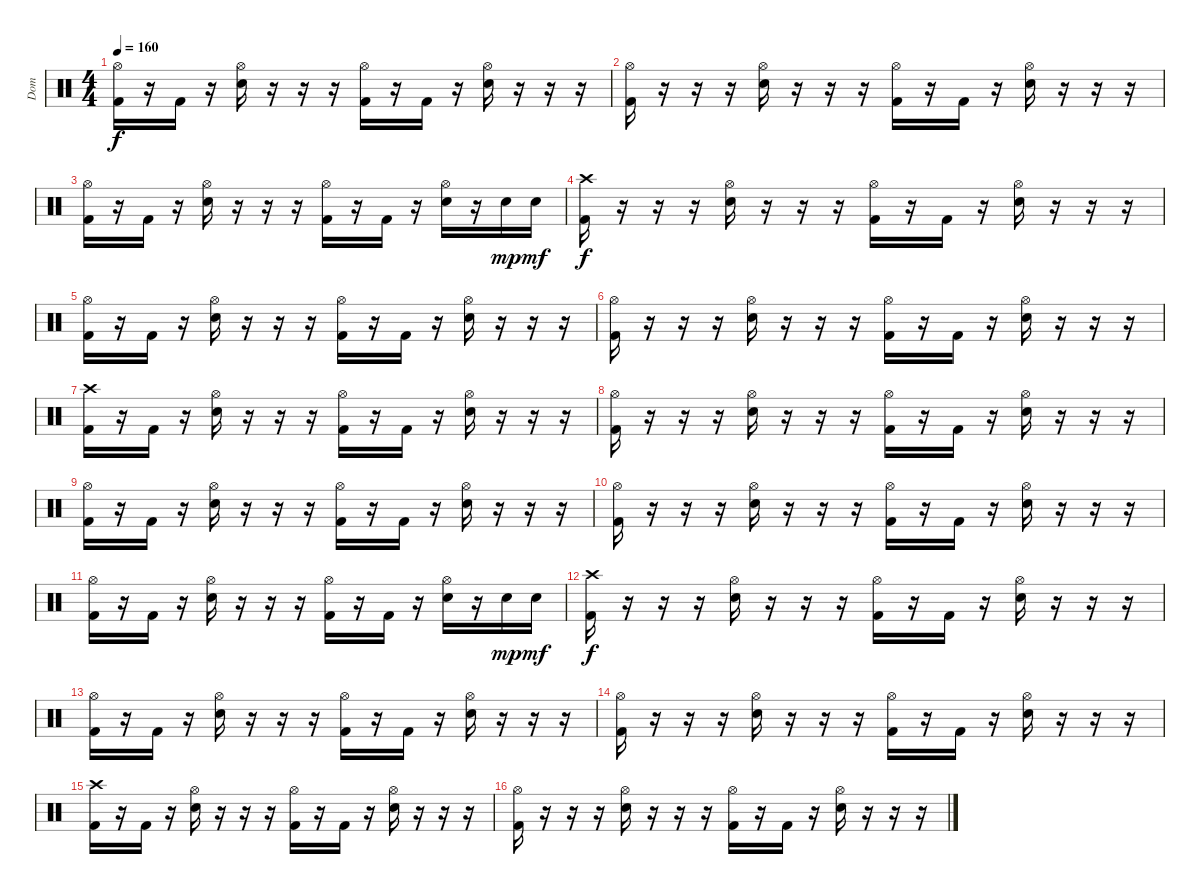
\track ("Dom" "Dom") {instrument percussion}
\staff {score}
\articulation defaults
\ts (4 4)
\tempo 160
\clef neutral
\ks c
("Hi-Hat (open)" "Kick (hit) 2").16{dy f} r.16 "Kick (hit) 2".16 r.16 ("Hi-Hat (open)" "Electric Snare (hit)").16 r.16 r.16 r.16 ("Hi-Hat (open)" "Kick (hit) 2").16 r.16 "Kick (hit) 2".16 r.16 ("Hi-Hat (open)" "Electric Snare (hit)").16 r.16 r.16 r.16 |
("Hi-Hat (open)" "Kick (hit) 2").16 r.16 r.16 r.16 ("Hi-Hat (open)" "Electric Snare (hit)").16 r.16 r.16 r.16 ("Hi-Hat (open)" "Kick (hit) 2").16 r.16 "Kick (hit) 2".16 r.16 ("Hi-Hat (open)" "Electric Snare (hit)").16 r.16 r.16 r.16 |
("Hi-Hat (open)" "Kick (hit) 2").16 r.16 "Kick (hit) 2".16 r.16 ("Hi-Hat (open)" "Electric Snare (hit)").16 r.16 r.16 r.16 ("Hi-Hat (open)" "Kick (hit) 2").16 r.16 "Kick (hit) 2".16 r.16 ("Hi-Hat (open)" "Electric Snare (hit)").16 r.16 "Electric Snare (hit)".16{dy mp} "Electric Snare (hit)".16{dy mf} |
("Crash high (hit)" "Kick (hit) 2").16{dy f} r.16 r.16 r.16 ("Hi-Hat (open)" "Electric Snare (hit)").16 r.16 r.16 r.16 ("Hi-Hat (open)" "Kick (hit) 2").16 r.16 "Kick (hit) 2".16 r.16 ("Hi-Hat (open)" "Electric Snare (hit)").16 r.16 r.16 r.16 |
("Hi-Hat (open)" "Kick (hit) 2").16 r.16 "Kick (hit) 2".16 r.16 ("Hi-Hat (open)" "Electric Snare (hit)").16 r.16 r.16 r.16 ("Hi-Hat (open)" "Kick (hit) 2").16 r.16 "Kick (hit) 2".16 r.16 ("Hi-Hat (open)" "Electric Snare (hit)").16 r.16 r.16 r.16 |
("Hi-Hat (open)" "Kick (hit) 2").16 r.16 r.16 r.16 ("Hi-Hat (open)" "Electric Snare (hit)").16 r.16 r.16 r.16 ("Hi-Hat (open)" "Kick (hit) 2").16 r.16 "Kick (hit) 2".16 r.16 ("Hi-Hat (open)" "Electric Snare (hit)").16 r.16 r.16 r.16 |
("Crash high (hit)" "Kick (hit) 2").16 r.16 "Kick (hit) 2".16 r.16 ("Hi-Hat (open)" "Electric Snare (hit)").16 r.16 r.16 r.16 ("Hi-Hat (open)" "Kick (hit) 2").16 r.16 "Kick (hit) 2".16 r.16 ("Hi-Hat (open)" "Electric Snare (hit)").16 r.16 r.16 r.16 |
("Hi-Hat (open)" "Kick (hit) 2").16 r.16 r.16 r.16 ("Hi-Hat (open)" "Electric Snare (hit)").16 r.16 r.16 r.16 ("Hi-Hat (open)" "Kick (hit) 2").16 r.16 "Kick (hit) 2".16 r.16 ("Hi-Hat (open)" "Electric Snare (hit)").16 r.16 r.16 r.16 |
("Hi-Hat (open)" "Kick (hit) 2").16 r.16 "Kick (hit) 2".16 r.16 ("Hi-Hat (open)" "Electric Snare (hit)").16 r.16 r.16 r.16 ("Hi-Hat (open)" "Kick (hit) 2").16 r.16 "Kick (hit) 2".16 r.16 ("Hi-Hat (open)" "Electric Snare (hit)").16 r.16 r.16 r.16 |
("Hi-Hat (open)" "Kick (hit) 2").16 r.16 r.16 r.16 ("Hi-Hat (open)" "Electric Snare (hit)").16 r.16 r.16 r.16 ("Hi-Hat (open)" "Kick (hit) 2").16 r.16 "Kick (hit) 2".16 r.16 ("Hi-Hat (open)" "Electric Snare (hit)").16 r.16 r.16 r.16 |
("Hi-Hat (open)" "Kick (hit) 2").16 r.16 "Kick (hit) 2".16 r.16 ("Hi-Hat (open)" "Electric Snare (hit)").16 r.16 r.16 r.16 ("Hi-Hat (open)" "Kick (hit) 2").16 r.16 "Kick (hit) 2".16 r.16 ("Hi-Hat (open)" "Electric Snare (hit)").16 r.16 "Electric Snare (hit)".16{dy mp} "Electric Snare (hit)".16{dy mf} |
("Crash high (hit)" "Kick (hit) 2").16{dy f} r.16 r.16 r.16 ("Hi-Hat (open)" "Electric Snare (hit)").16 r.16 r.16 r.16 ("Hi-Hat (open)" "Kick (hit) 2").16 r.16 "Kick (hit) 2".16 r.16 ("Hi-Hat (open)" "Electric Snare (hit)").16 r.16 r.16 r.16 |
("Hi-Hat (open)" "Kick (hit) 2").16 r.16 "Kick (hit) 2".16 r.16 ("Hi-Hat (open)" "Electric Snare (hit)").16 r.16 r.16 r.16 ("Hi-Hat (open)" "Kick (hit) 2").16 r.16 "Kick (hit) 2".16 r.16 ("Hi-Hat (open)" "Electric Snare (hit)").16 r.16 r.16 r.16 |
("Hi-Hat (open)" "Kick (hit) 2").16 r.16 r.16 r.16 ("Hi-Hat (open)" "Electric Snare (hit)").16 r.16 r.16 r.16 ("Hi-Hat (open)" "Kick (hit) 2").16 r.16 "Kick (hit) 2".16 r.16 ("Hi-Hat (open)" "Electric Snare (hit)").16 r.16 r.16 r.16 |
("Crash high (hit)" "Kick (hit) 2").16 r.16 "Kick (hit) 2".16 r.16 ("Hi-Hat (open)" "Electric Snare (hit)").16 r.16 r.16 r.16 ("Hi-Hat (open)" "Kick (hit) 2").16 r.16 "Kick (hit) 2".16 r.16 ("Hi-Hat (open)" "Electric Snare (hit)").16 r.16 r.16 r.16 |
("Hi-Hat (open)" "Kick (hit) 2").16 r.16 r.16 r.16 ("Hi-Hat (open)" "Electric Snare (hit)").16 r.16 r.16 r.16 ("Hi-Hat (open)" "Kick (hit) 2").16 r.16 "Kick (hit) 2".16 r.16 ("Hi-Hat (open)" "Electric Snare (hit)").16 r.16 r.16 r.16
